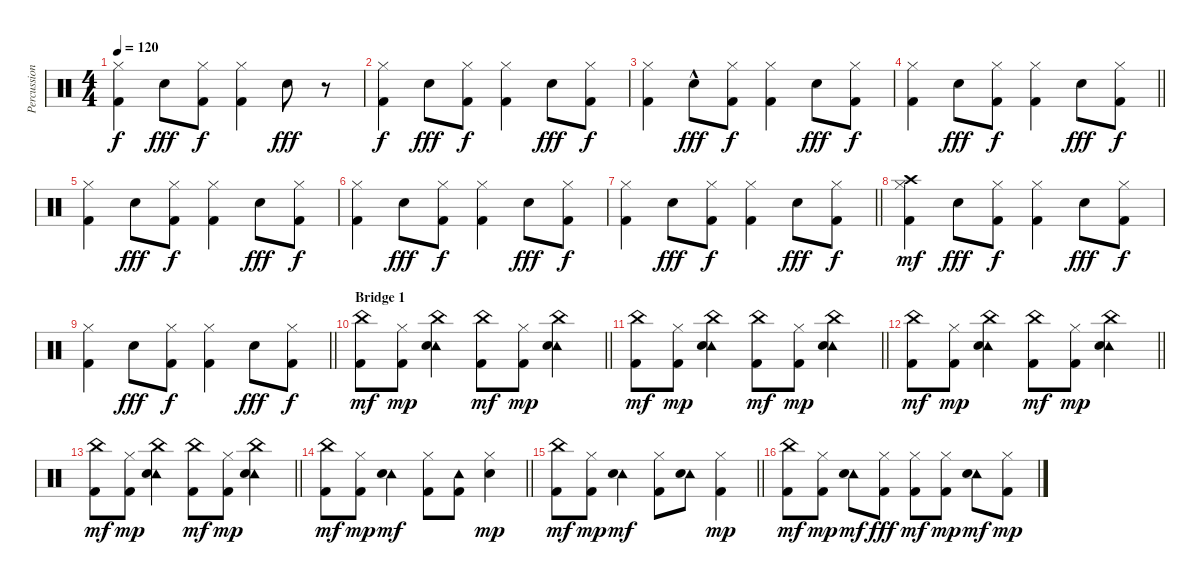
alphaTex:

\track ("Percussion" "Percussion") {instrument percussion}
\staff {score}
\articulation defaults
\ts (4 4)
\tempo 120
\clef neutral
\ks c
("Kick (hit) 2" "Hi-Hat (closed)").4{dy f} "Snare (hit) 2".8{dy fff} ("Kick (hit) 2" "Hi-Hat (closed)").8{dy f} ("Kick (hit) 2" "Hi-Hat (closed)").4 "Snare (hit) 2".8{dy fff} r.8 |
("Kick (hit) 2" "Hi-Hat (closed)").4{dy f} "Snare (hit) 2".8{dy fff} ("Kick (hit) 2" "Hi-Hat (closed)").8{dy f} ("Kick (hit) 2" "Hi-Hat (closed)").4 "Snare (hit) 2".8{dy fff} ("Kick (hit) 2" "Hi-Hat (closed)").8{dy f} |
("Kick (hit) 2" "Hi-Hat (closed)").4 "Snare (hit) 2"{hac}.8{dy fff} ("Kick (hit) 2" "Hi-Hat (closed)").8{dy f} ("Kick (hit) 2" "Hi-Hat (closed)").4 "Snare (hit) 2".8{dy fff} ("Kick (hit) 2" "Hi-Hat (closed)").8{dy f} |
\barLineRight lightlight
("Kick (hit) 2" "Hi-Hat (closed)").4 "Snare (hit) 2".8{dy fff} ("Kick (hit) 2" "Hi-Hat (closed)").8{dy f} ("Kick (hit) 2" "Hi-Hat (closed)").4 "Snare (hit) 2".8{dy fff} ("Kick (hit) 2" "Hi-Hat (closed)").8{dy f} |
("Kick (hit) 2" "Hi-Hat (closed)").4 "Snare (hit) 2".8{dy fff} ("Kick (hit) 2" "Hi-Hat (closed)").8{dy f} ("Kick (hit) 2" "Hi-Hat (closed)").4 "Snare (hit) 2".8{dy fff} ("Kick (hit) 2" "Hi-Hat (closed)").8{dy f} |
("Kick (hit) 2" "Hi-Hat (closed)").4 "Snare (hit) 2".8{dy fff} ("Kick (hit) 2" "Hi-Hat (closed)").8{dy f} ("Kick (hit) 2" "Hi-Hat (closed)").4 "Snare (hit) 2".8{dy fff} ("Kick (hit) 2" "Hi-Hat (closed)").8{dy f} |
\barLineRight lightlight
("Kick (hit) 2" "Hi-Hat (closed)").4 "Snare (hit) 2".8{dy fff} ("Kick (hit) 2" "Hi-Hat (closed)").8{dy f} ("Kick (hit) 2" "Hi-Hat (closed)").4 "Snare (hit) 2".8{dy fff} ("Kick (hit) 2" "Hi-Hat (closed)").8{dy f} |
("Kick (hit) 2" "Hi-Hat (closed)" "Crash high (hit)").4{dy mf} "Snare (hit) 2".8{dy fff} ("Kick (hit) 2" "Hi-Hat (closed)").8{dy f} ("Kick (hit) 2" "Hi-Hat (closed)").4 "Snare (hit) 2".8{dy fff} ("Kick (hit) 2" "Hi-Hat (closed)").8{dy f} |
\barLineRight lightlight
("Kick (hit) 2" "Hi-Hat (closed)").4 "Snare (hit) 2".8{dy fff} ("Kick (hit) 2" "Hi-Hat (closed)").8{dy f} ("Kick (hit) 2" "Hi-Hat (closed)").4 "Snare (hit) 2".8{dy fff} ("Kick (hit) 2" "Hi-Hat (closed)").8{dy f} |
\section ("" "Bridge 1")
\barLineRight lightlight
("China (hit)" "Kick (hit) 2").8{dy mf} ("Hi-Hat (closed)" "Kick (hit) 2").8{dy mp} ("Tambourine (hit)" "Snare (hit) 2" "China (hit)").4 ("China (hit)" "Kick (hit) 2").8{dy mf} ("Hi-Hat (closed)" "Kick (hit) 2").8{dy mp} ("Tambourine (hit)" "Snare (hit) 2" "China (hit)").4 |
\barLineRight lightlight
("China (hit)" "Kick (hit) 2").8{dy mf} ("Hi-Hat (closed)" "Kick (hit) 2").8{dy mp} ("Tambourine (hit)" "Snare (hit) 2" "China (hit)").4 ("China (hit)" "Kick (hit) 2").8{dy mf} ("Hi-Hat (closed)" "Kick (hit) 2").8{dy mp} ("Tambourine (hit)" "Snare (hit) 2" "China (hit)").4 |
\barLineRight lightlight
("China (hit)" "Kick (hit) 2").8{dy mf} ("Hi-Hat (closed)" "Kick (hit) 2").8{dy mp} ("Tambourine (hit)" "Snare (hit) 2" "China (hit)").4 ("China (hit)" "Kick (hit) 2").8{dy mf} ("Hi-Hat (closed)" "Kick (hit) 2").8{dy mp} ("Tambourine (hit)" "Snare (hit) 2" "China (hit)").4 |
\barLineRight lightlight
("China (hit)" "Kick (hit) 2").8{dy mf} ("Hi-Hat (closed)" "Kick (hit) 2").8{dy mp} ("Tambourine (hit)" "Snare (hit) 2" "China (hit)").4 ("China (hit)" "Kick (hit) 2").8{dy mf} ("Hi-Hat (closed)" "Kick (hit) 2").8{dy mp} ("Tambourine (hit)" "Snare (hit) 2" "China (hit)").4 |
\barLineRight lightlight
("China (hit)" "Kick (hit) 2").8{dy mf} ("Hi-Hat (closed)" "Kick (hit) 2").8{dy mp} ("Tambourine (hit)" "Snare (hit) 2").4{dy mf} ("Hi-Hat (closed)" "Kick (hit) 2").8 ("Tambourine (hit)" "Kick (hit) 2").8 ("Hi-Hat (closed)" "Snare (hit) 2").4{dy mp} |
\barLineRight lightlight
("China (hit)" "Kick (hit) 2").8{dy mf} ("Hi-Hat (closed)" "Kick (hit) 2").8{dy mp} ("Tambourine (hit)" "Snare (hit) 2").4{dy mf} ("Hi-Hat (closed)" "Kick (hit) 2").8 ("Tambourine (hit)" "Snare (hit) 2").8 ("Hi-Hat (closed)" "Kick (hit) 2").4{dy mp} |
("China (hit)" "Kick (hit) 2").8{dy mf} ("Hi-Hat (closed)" "Kick (hit) 2").8{dy mp} ("Tambourine (hit)" "Snare (hit) 2").8{dy mf} ("Hi-Hat (closed)" "Kick (hit) 2").8{dy fff} ("Hi-Hat (closed)" "Kick (hit) 2").8{dy mf} ("Hi-Hat (closed)" "Kick (hit) 2").8{dy mp} ("Tambourine (hit)" "Snare (hit) 2").8{dy mf} ("Hi-Hat (closed)" "Kick (hit) 2").8{dy mp}
